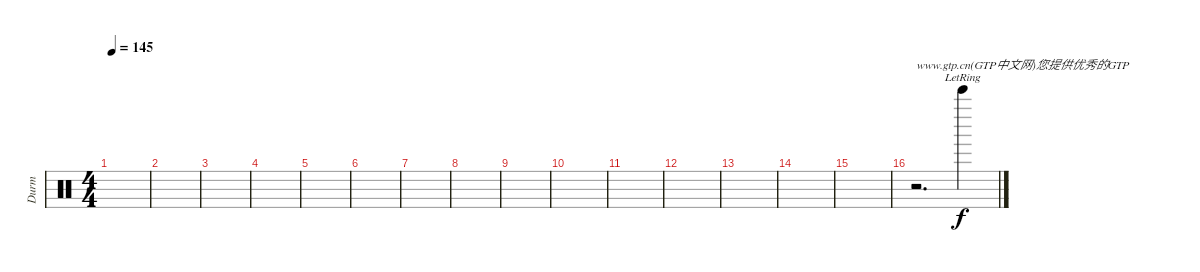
\track ("Durm" "Durm") {instrument percussion}
\staff {score}
\articulation defaults
\ts (4 4)
\tempo 145
\clef neutral
\ks c
|
|
|
|
|
|
|
|
|
|
|
|
|
|
|
r.2{d txt "www.gtp.cn(GTP中文网)您提供优秀的GTP"} "Bell Tree (hit)"{lr}.4
